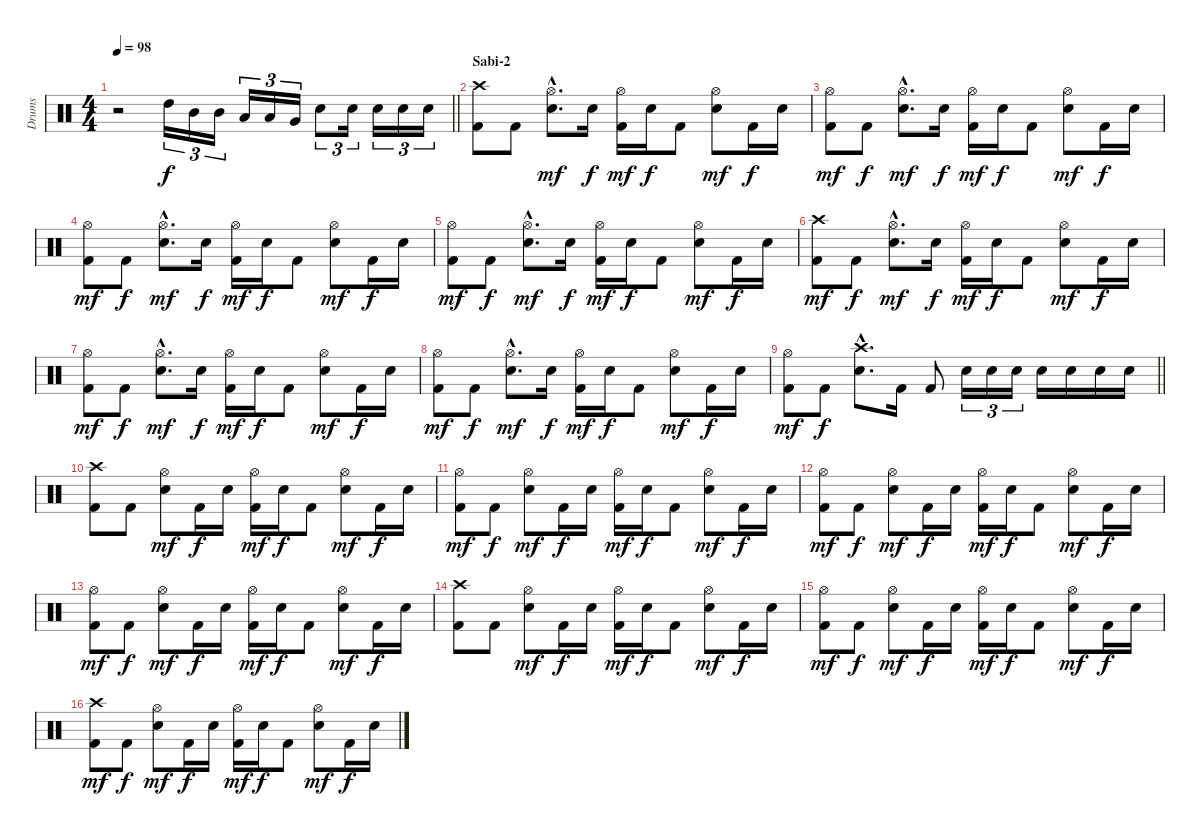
\track ("Drums" "Drums") {instrument percussion}
\staff {score}
\articulation defaults
\ts (4 4)
\tempo 98
\clef neutral
\barLineRight lightlight
\ks c
r.2{dy f} "High Tom (hit)".16{tu (3 2)} "Mid Tom (hit)".16{tu (3 2)} "Mid Tom (hit)".16{tu (3 2)} "Low Tom (hit)".16{tu (3 2)} "Low Tom (hit)".16{tu (3 2)} "Very Low Tom (hit)".16{tu (3 2)} "Snare (hit) 2".8{tu (3 2)} "Snare (hit) 2".16{tu (3 2)} "Snare (hit) 2".16{tu (3 2)} "Snare (hit) 2".16{tu (3 2)} "Snare (hit) 2".16{tu (3 2)} |
\section ("" "Sabi-2")
("Crash high (hit)" "Kick (hit) 2").8 "Kick (hit) 2".8 ("Hi-Hat (open)"{hac} "Snare (hit) 2"{hac}).8{d dy mf} "Snare (hit) 2".16{dy f} ("Hi-Hat (open)" "Kick (hit) 2").16{dy mf} "Snare (hit) 2".16{dy f} "Kick (hit) 2".8 ("Hi-Hat (open)" "Snare (hit) 2").8{dy mf} "Kick (hit) 2".16{dy f} "Snare (hit) 2".16 |
("Hi-Hat (open)" "Kick (hit) 2").8{dy mf} "Kick (hit) 2".8{dy f} ("Hi-Hat (open)"{hac} "Snare (hit) 2"{hac}).8{d dy mf} "Snare (hit) 2".16{dy f} ("Hi-Hat (open)" "Kick (hit) 2").16{dy mf} "Snare (hit) 2".16{dy f} "Kick (hit) 2".8 ("Hi-Hat (open)" "Snare (hit) 2").8{dy mf} "Kick (hit) 2".16{dy f} "Snare (hit) 2".16 |
("Hi-Hat (open)" "Kick (hit) 2").8{dy mf} "Kick (hit) 2".8{dy f} ("Hi-Hat (open)"{hac} "Snare (hit) 2"{hac}).8{d dy mf} "Snare (hit) 2".16{dy f} ("Hi-Hat (open)" "Kick (hit) 2").16{dy mf} "Snare (hit) 2".16{dy f} "Kick (hit) 2".8 ("Hi-Hat (open)" "Snare (hit) 2").8{dy mf} "Kick (hit) 2".16{dy f} "Snare (hit) 2".16 |
("Hi-Hat (open)" "Kick (hit) 2").8{dy mf} "Kick (hit) 2".8{dy f} ("Hi-Hat (open)"{hac} "Snare (hit) 2"{hac}).8{d dy mf} "Snare (hit) 2".16{dy f} ("Hi-Hat (open)" "Kick (hit) 2").16{dy mf} "Snare (hit) 2".16{dy f} "Kick (hit) 2".8 ("Hi-Hat (open)" "Snare (hit) 2").8{dy mf} "Kick (hit) 2".16{dy f} "Snare (hit) 2".16 |
("Crash high (hit)" "Kick (hit) 2").8{dy mf} "Kick (hit) 2".8{dy f} ("Hi-Hat (open)"{hac} "Snare (hit) 2"{hac}).8{d dy mf} "Snare (hit) 2".16{dy f} ("Hi-Hat (open)" "Kick (hit) 2").16{dy mf} "Snare (hit) 2".16{dy f} "Kick (hit) 2".8 ("Hi-Hat (open)" "Snare (hit) 2").8{dy mf} "Kick (hit) 2".16{dy f} "Snare (hit) 2".16 |
("Hi-Hat (open)" "Kick (hit) 2").8{dy mf} "Kick (hit) 2".8{dy f} ("Hi-Hat (open)"{hac} "Snare (hit) 2"{hac}).8{d dy mf} "Snare (hit) 2".16{dy f} ("Hi-Hat (open)" "Kick (hit) 2").16{dy mf} "Snare (hit) 2".16{dy f} "Kick (hit) 2".8 ("Hi-Hat (open)" "Snare (hit) 2").8{dy mf} "Kick (hit) 2".16{dy f} "Snare (hit) 2".16 |
("Hi-Hat (open)" "Kick (hit) 2").8{dy mf} "Kick (hit) 2".8{dy f} ("Hi-Hat (open)"{hac} "Snare (hit) 2"{hac}).8{d dy mf} "Snare (hit) 2".16{dy f} ("Hi-Hat (open)" "Kick (hit) 2").16{dy mf} "Snare (hit) 2".16{dy f} "Kick (hit) 2".8 ("Hi-Hat (open)" "Snare (hit) 2").8{dy mf} "Kick (hit) 2".16{dy f} "Snare (hit) 2".16 |
\barLineRight lightlight
("Hi-Hat (open)" "Kick (hit) 2").8{dy mf} "Kick (hit) 2".8{dy f} ("Crash high (hit)"{hac} "Snare (hit) 2"{hac}).8{d} "Kick (hit) 2".16 "Kick (hit) 2".8 "Snare (hit) 2".16{tu (3 2)} "Snare (hit) 2".16{tu (3 2)} "Snare (hit) 2".16{tu (3 2)} "Snare (hit) 2".16 "Snare (hit) 2".16 "Snare (hit) 2".16 "Snare (hit) 2".16 |
("Crash high (hit)" "Kick (hit) 2").8 "Kick (hit) 2".8 ("Hi-Hat (open)" "Snare (hit) 2").8{dy mf} "Kick (hit) 2".16{dy f} "Snare (hit) 2".16 ("Hi-Hat (open)" "Kick (hit) 2").16{dy mf} "Snare (hit) 2".16{dy f} "Kick (hit) 2".8 ("Hi-Hat (open)" "Snare (hit) 2").8{dy mf} "Kick (hit) 2".16{dy f} "Snare (hit) 2".16 |
("Hi-Hat (open)" "Kick (hit) 2").8{dy mf} "Kick (hit) 2".8{dy f} ("Hi-Hat (open)" "Snare (hit) 2").8{dy mf} "Kick (hit) 2".16{dy f} "Snare (hit) 2".16 ("Hi-Hat (open)" "Kick (hit) 2").16{dy mf} "Snare (hit) 2".16{dy f} "Kick (hit) 2".8 ("Hi-Hat (open)" "Snare (hit) 2").8{dy mf} "Kick (hit) 2".16{dy f} "Snare (hit) 2".16 |
("Hi-Hat (open)" "Kick (hit) 2").8{dy mf} "Kick (hit) 2".8{dy f} ("Hi-Hat (open)" "Snare (hit) 2").8{dy mf} "Kick (hit) 2".16{dy f} "Snare (hit) 2".16 ("Hi-Hat (open)" "Kick (hit) 2").16{dy mf} "Snare (hit) 2".16{dy f} "Kick (hit) 2".8 ("Hi-Hat (open)" "Snare (hit) 2").8{dy mf} "Kick (hit) 2".16{dy f} "Snare (hit) 2".16 |
("Hi-Hat (open)" "Kick (hit) 2").8{dy mf} "Kick (hit) 2".8{dy f} ("Hi-Hat (open)" "Snare (hit) 2").8{dy mf} "Kick (hit) 2".16{dy f} "Snare (hit) 2".16 ("Hi-Hat (open)" "Kick (hit) 2").16{dy mf} "Snare (hit) 2".16{dy f} "Kick (hit) 2".8 ("Hi-Hat (open)" "Snare (hit) 2").8{dy mf} "Kick (hit) 2".16{dy f} "Snare (hit) 2".16 |
("Crash high (hit)" "Kick (hit) 2").8 "Kick (hit) 2".8 ("Hi-Hat (open)" "Snare (hit) 2").8{dy mf} "Kick (hit) 2".16{dy f} "Snare (hit) 2".16 ("Hi-Hat (open)" "Kick (hit) 2").16{dy mf} "Snare (hit) 2".16{dy f} "Kick (hit) 2".8 ("Hi-Hat (open)" "Snare (hit) 2").8{dy mf} "Kick (hit) 2".16{dy f} "Snare (hit) 2".16 |
("Hi-Hat (open)" "Kick (hit) 2").8{dy mf} "Kick (hit) 2".8{dy f} ("Hi-Hat (open)" "Snare (hit) 2").8{dy mf} "Kick (hit) 2".16{dy f} "Snare (hit) 2".16 ("Hi-Hat (open)" "Kick (hit) 2").16{dy mf} "Snare (hit) 2".16{dy f} "Kick (hit) 2".8 ("Hi-Hat (open)" "Snare (hit) 2").8{dy mf} "Kick (hit) 2".16{dy f} "Snare (hit) 2".16 |
("Crash high (hit)" "Kick (hit) 2").8{dy mf} "Kick (hit) 2".8{dy f} ("Hi-Hat (open)" "Snare (hit) 2").8{dy mf} "Kick (hit) 2".16{dy f} "Snare (hit) 2".16 ("Hi-Hat (open)" "Kick (hit) 2").16{dy mf} "Snare (hit) 2".16{dy f} "Kick (hit) 2".8 ("Hi-Hat (open)" "Snare (hit) 2").8{dy mf} "Kick (hit) 2".16{dy f} "Snare (hit) 2".16
